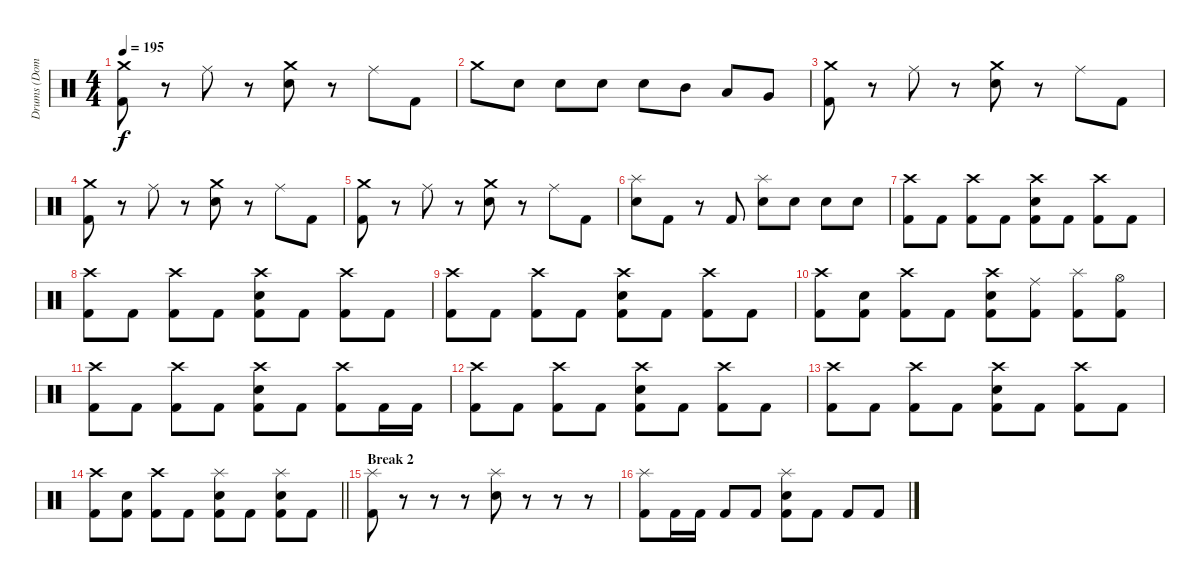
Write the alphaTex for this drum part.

\track ("Drums (Dominik)" "Drums (Dom") {instrument percussion}
\staff {score}
\articulation defaults
\ts (4 4)
\tempo 195
\clef neutral
\ks c
("Crash medium (hit)" "Kick (hit) 2").8{dy f} r.8 "Ride (middle)".8 r.8 ("Crash medium (hit)" "Electric Snare (hit)").8 r.8 "Ride (middle)".8 "Kick (hit) 2".8 |
"Crash medium (hit)".8 "Electric Snare (hit)".8 "Electric Snare (hit)".8 "Electric Snare (hit)".8 "Electric Snare (hit)".8 "Mid Tom (hit)".8 "Low Tom (hit)".8 "Very Low Tom (hit)".8 |
("Crash medium (hit)" "Kick (hit) 2").8 r.8 "Ride (middle)".8 r.8 ("Crash medium (hit)" "Electric Snare (hit)").8 r.8 "Ride (middle)".8 "Kick (hit) 2".8 |
("Crash medium (hit)" "Kick (hit) 2").8 r.8 "Ride (middle)".8 r.8 ("Crash medium (hit)" "Electric Snare (hit)").8 r.8 "Ride (middle)".8 "Kick (hit) 2".8 |
("Crash medium (hit)" "Kick (hit) 2").8 r.8 "Ride (middle)".8 r.8 ("Crash medium (hit)" "Electric Snare (hit)").8 r.8 "Ride (middle)".8 "Kick (hit) 2".8 |
("Splash (hit)" "Electric Snare (hit)").8 "Kick (hit) 2".8 r.8 "Kick (hit) 2".8 ("Splash (hit)" "Electric Snare (hit)").8 "Electric Snare (hit)".8 "Electric Snare (hit)".8 "Electric Snare (hit)".8 |
("Crash high (hit)" "Kick (hit) 2").8 "Kick (hit) 2".8 ("Crash high (hit)" "Kick (hit) 2").8 "Kick (hit) 2".8 ("Crash high (hit)" "Electric Snare (hit)" "Kick (hit) 2").8 "Kick (hit) 2".8 ("Crash high (hit)" "Kick (hit) 2").8 "Kick (hit) 2".8 |
("Crash high (hit)" "Kick (hit) 2").8 "Kick (hit) 2".8 ("Crash high (hit)" "Kick (hit) 2").8 "Kick (hit) 2".8 ("Crash high (hit)" "Electric Snare (hit)" "Kick (hit) 2").8 "Kick (hit) 2".8 ("Crash high (hit)" "Kick (hit) 2").8 "Kick (hit) 2".8 |
("Crash high (hit)" "Kick (hit) 2").8 "Kick (hit) 2".8 ("Crash high (hit)" "Kick (hit) 2").8 "Kick (hit) 2".8 ("Crash high (hit)" "Electric Snare (hit)" "Kick (hit) 2").8 "Kick (hit) 2".8 ("Crash high (hit)" "Kick (hit) 2").8 "Kick (hit) 2".8 |
("Crash high (hit)" "Kick (hit) 2").8 ("Electric Snare (hit)" "Kick (hit) 2").8 ("Crash high (hit)" "Kick (hit) 2").8 "Kick (hit) 2".8 ("Crash high (hit)" "Electric Snare (hit)" "Kick (hit) 2").8 ("Ride (middle)" "Kick (hit) 2").8 ("Splash (hit)" "Kick (hit) 2").8 ("Hi-Hat (open)" "Kick (hit) 2").8 |
("Crash high (hit)" "Kick (hit) 2").8 "Kick (hit) 2".8 ("Crash high (hit)" "Kick (hit) 2").8 "Kick (hit) 2".8 ("Crash high (hit)" "Electric Snare (hit)" "Kick (hit) 2").8 "Kick (hit) 2".8 ("Crash high (hit)" "Kick (hit) 2").8 "Kick (hit) 2".16 "Kick (hit) 2".16 |
("Crash high (hit)" "Kick (hit) 2").8 "Kick (hit) 2".8 ("Crash high (hit)" "Kick (hit) 2").8 "Kick (hit) 2".8 ("Crash high (hit)" "Electric Snare (hit)" "Kick (hit) 2").8 "Kick (hit) 2".8 ("Crash high (hit)" "Kick (hit) 2").8 "Kick (hit) 2".8 |
("Crash high (hit)" "Kick (hit) 2").8 "Kick (hit) 2".8 ("Crash high (hit)" "Kick (hit) 2").8 "Kick (hit) 2".8 ("Crash high (hit)" "Electric Snare (hit)" "Kick (hit) 2").8 "Kick (hit) 2".8 ("Crash high (hit)" "Kick (hit) 2").8 "Kick (hit) 2".8 |
\barLineRight lightlight
("Crash high (hit)" "Kick (hit) 2").8 ("Electric Snare (hit)" "Kick (hit) 2").8 ("Crash high (hit)" "Kick (hit) 2").8 "Kick (hit) 2".8 ("Splash (hit)" "Electric Snare (hit)" "Kick (hit) 2").8 "Kick (hit) 2".8 ("Splash (hit)" "Electric Snare (hit)" "Kick (hit) 2").8 "Kick (hit) 2".8 |
\section ("" "Break 2")
("Splash (hit)" "Kick (hit) 2").8 r.8 r.8 r.8 ("Splash (hit)" "Electric Snare (hit)").8 r.8 r.8 r.8 |
("Splash (hit)" "Kick (hit) 2").8 "Kick (hit) 2".16 "Kick (hit) 2".16 "Kick (hit) 2".8 "Kick (hit) 2".8 ("Splash (hit)" "Electric Snare (hit)" "Kick (hit) 2").8 "Kick (hit) 2".8 "Kick (hit) 2".8 "Kick (hit) 2".8
